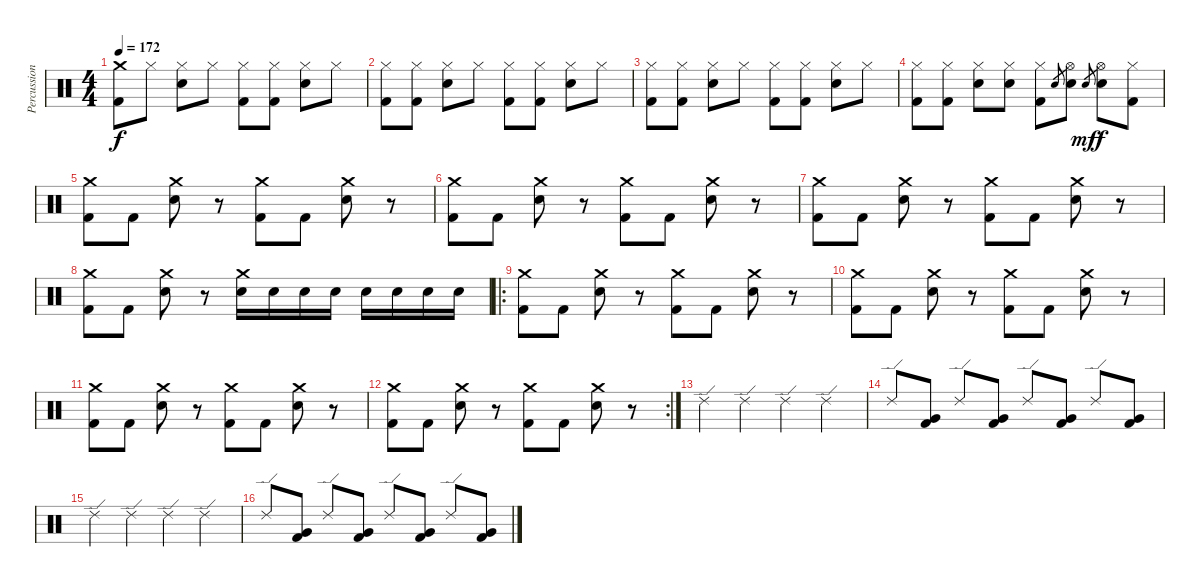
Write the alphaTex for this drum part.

\track ("Percussions" "Percussion") {instrument percussion}
\staff {score}
\articulation defaults
\ts (4 4)
\tempo 172
\clef neutral
\ks c
("Crash medium (hit)" "Kick (hit) 2").8{dy f} "Hi-Hat (closed)".8 ("Hi-Hat (closed)" "Electric Snare (hit)").8 "Hi-Hat (closed)".8 ("Hi-Hat (closed)" "Kick (hit) 2").8 ("Hi-Hat (closed)" "Kick (hit) 2").8 ("Hi-Hat (closed)" "Electric Snare (hit)").8 "Hi-Hat (closed)".8 |
("Hi-Hat (closed)" "Kick (hit) 2").8 ("Hi-Hat (closed)" "Kick (hit) 2").8 ("Hi-Hat (closed)" "Electric Snare (hit)").8 "Hi-Hat (closed)".8 ("Hi-Hat (closed)" "Kick (hit) 2").8 ("Hi-Hat (closed)" "Kick (hit) 2").8 ("Hi-Hat (closed)" "Electric Snare (hit)").8 "Hi-Hat (closed)".8 |
("Hi-Hat (closed)" "Kick (hit) 2").8 ("Hi-Hat (closed)" "Kick (hit) 2").8 ("Hi-Hat (closed)" "Electric Snare (hit)").8 "Hi-Hat (closed)".8 ("Hi-Hat (closed)" "Kick (hit) 2").8 ("Hi-Hat (closed)" "Kick (hit) 2").8 ("Hi-Hat (closed)" "Electric Snare (hit)").8 "Hi-Hat (closed)".8 |
("Hi-Hat (closed)" "Kick (hit) 2").8 ("Hi-Hat (closed)" "Kick (hit) 2").8 ("Hi-Hat (closed)" "Electric Snare (hit)").8 ("Hi-Hat (closed)" "Electric Snare (hit)").8 ("Hi-Hat (closed)" "Kick (hit) 2").8 "Electric Snare (hit)".8{gr} ("Hi-Hat (open)" "Electric Snare (hit)").8 "Electric Snare (hit)".8{gr dy mf} ("Hi-Hat (open)" "Electric Snare (hit)").8{dy f} ("Hi-Hat (closed)" "Kick (hit) 2").8 |
("Kick (hit) 2" "Crash medium (hit)").8 "Kick (hit) 2".8 ("Crash medium (hit)" "Electric Snare (hit)").8 r.8 ("Crash medium (hit)" "Kick (hit) 2").8 "Kick (hit) 2".8 ("Crash medium (hit)" "Electric Snare (hit)").8 r.8 |
("Kick (hit) 2" "Crash medium (hit)").8 "Kick (hit) 2".8 ("Crash medium (hit)" "Electric Snare (hit)").8 r.8 ("Crash medium (hit)" "Kick (hit) 2").8 "Kick (hit) 2".8 ("Crash medium (hit)" "Electric Snare (hit)").8 r.8 |
("Kick (hit) 2" "Crash medium (hit)").8 "Kick (hit) 2".8 ("Crash medium (hit)" "Electric Snare (hit)").8 r.8 ("Crash medium (hit)" "Kick (hit) 2").8 "Kick (hit) 2".8 ("Crash medium (hit)" "Electric Snare (hit)").8 r.8 |
("Kick (hit) 2" "Crash medium (hit)").8 "Kick (hit) 2".8 ("Crash medium (hit)" "Electric Snare (hit)").8 r.8 ("Crash medium (hit)" "Electric Snare (hit)").16 "Electric Snare (hit)".16 "Electric Snare (hit)".16 "Electric Snare (hit)".16 "Electric Snare (hit)".16 "Electric Snare (hit)".16 "Electric Snare (hit)".16 "Electric Snare (hit)".16 |
\ro
("Kick (hit) 2" "Crash medium (hit)").8 "Kick (hit) 2".8 ("Crash medium (hit)" "Electric Snare (hit)").8 r.8 ("Crash medium (hit)" "Kick (hit) 2").8 "Kick (hit) 2".8 ("Crash medium (hit)" "Electric Snare (hit)").8 r.8 |
("Kick (hit) 2" "Crash medium (hit)").8 "Kick (hit) 2".8 ("Crash medium (hit)" "Electric Snare (hit)").8 r.8 ("Crash medium (hit)" "Kick (hit) 2").8 "Kick (hit) 2".8 ("Crash medium (hit)" "Electric Snare (hit)").8 r.8 |
("Kick (hit) 2" "Crash medium (hit)").8 "Kick (hit) 2".8 ("Crash medium (hit)" "Electric Snare (hit)").8 r.8 ("Crash medium (hit)" "Kick (hit) 2").8 "Kick (hit) 2".8 ("Crash medium (hit)" "Electric Snare (hit)").8 r.8 |
\rc 2
("Kick (hit) 2" "Crash medium (hit)").8 "Kick (hit) 2".8 ("Crash medium (hit)" "Electric Snare (hit)").8 r.8 ("Crash medium (hit)" "Kick (hit) 2").8 "Kick (hit) 2".8 ("Crash medium (hit)" "Electric Snare (hit)").8 r.8 |
"Ride (edge) 2".4 "Ride (edge) 2".4 "Ride (edge) 2".4 "Ride (edge) 2".4 |
"Ride (edge) 2".8 ("Kick (hit) 2" "Very Low Tom (hit)").8 "Ride (edge) 2".8 ("Kick (hit) 2" "Very Low Tom (hit)").8 "Ride (edge) 2".8 ("Kick (hit) 2" "Very Low Tom (hit)").8 "Ride (edge) 2".8 ("Kick (hit) 2" "Very Low Tom (hit)").8 |
"Ride (edge) 2".4 "Ride (edge) 2".4 "Ride (edge) 2".4 "Ride (edge) 2".4 |
"Ride (edge) 2".8 ("Kick (hit) 2" "Very Low Tom (hit)").8 "Ride (edge) 2".8 ("Kick (hit) 2" "Very Low Tom (hit)").8 "Ride (edge) 2".8 ("Kick (hit) 2" "Very Low Tom (hit)").8 "Ride (edge) 2".8 ("Kick (hit) 2" "Very Low Tom (hit)").8
